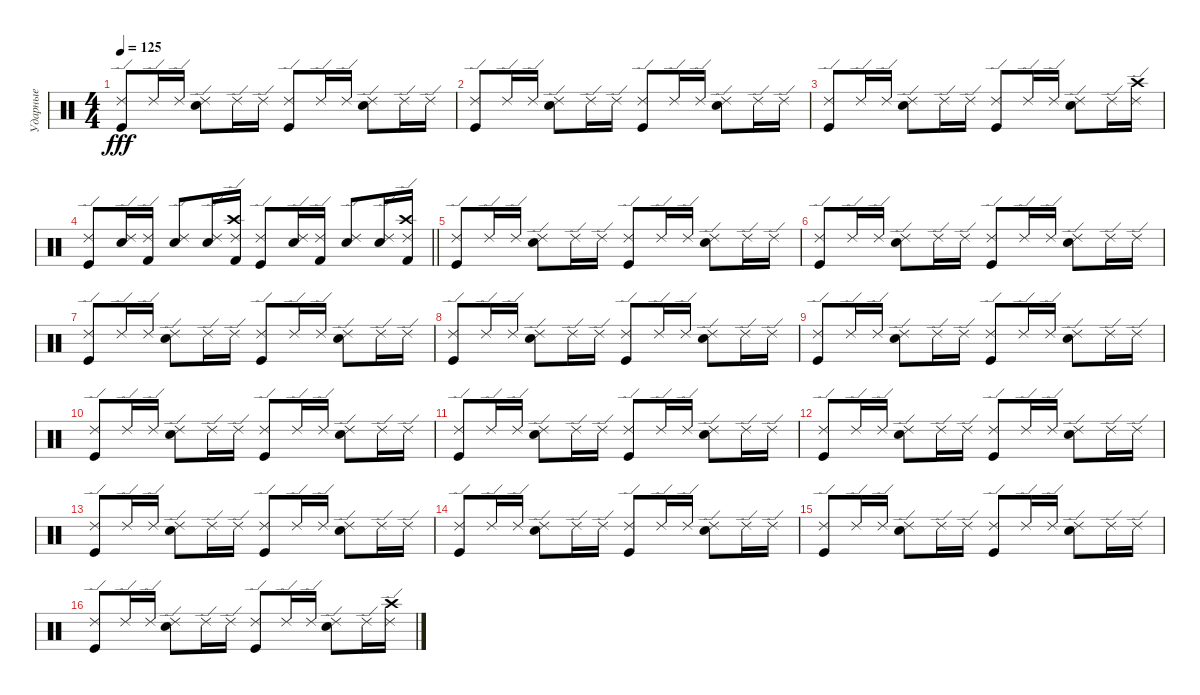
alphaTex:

\track ("Ударные" "Ударные") {instrument percussion}
\staff {score}
\articulation defaults
\ts (4 4)
\tempo 125
\clef neutral
\ks c
("Ride (edge) 2" "Kick (hit)").8{dy fff} "Ride (edge) 2".16 "Ride (edge) 2".16 ("Ride (edge) 2" "Snare (hit) 2").8 "Ride (edge) 2".16 "Ride (edge) 2".16 ("Ride (edge) 2" "Kick (hit)").8 "Ride (edge) 2".16 "Ride (edge) 2".16 ("Ride (edge) 2" "Snare (hit) 2").8 "Ride (edge) 2".16 "Ride (edge) 2".16 |
("Ride (edge) 2" "Kick (hit)").8 "Ride (edge) 2".16 "Ride (edge) 2".16 ("Ride (edge) 2" "Snare (hit) 2").8 "Ride (edge) 2".16 "Ride (edge) 2".16 ("Ride (edge) 2" "Kick (hit)").8 "Ride (edge) 2".16 "Ride (edge) 2".16 ("Ride (edge) 2" "Snare (hit) 2").8 "Ride (edge) 2".16 "Ride (edge) 2".16 |
("Ride (edge) 2" "Kick (hit)").8 "Ride (edge) 2".16 "Ride (edge) 2".16 ("Ride (edge) 2" "Snare (hit) 2").8 "Ride (edge) 2".16 "Ride (edge) 2".16 ("Ride (edge) 2" "Kick (hit)").8 "Ride (edge) 2".16 "Ride (edge) 2".16 ("Ride (edge) 2" "Snare (hit) 2").8 "Ride (edge) 2".16 ("Ride (edge) 2" "Crash high (hit)").16 |
\barLineRight lightlight
("Ride (edge) 2" "Kick (hit)").8 ("Ride (edge) 2" "Metronome (bell)").16 ("Ride (edge) 2" "Kick (hit) 2").16 ("Ride (edge) 2" "Snare (hit) 2").8 ("Ride (edge) 2" "Metronome (bell)").16 ("Ride (edge) 2" "Crash high (hit)" "Kick (hit) 2").16 ("Ride (edge) 2" "Kick (hit)").8 ("Ride (edge) 2" "Metronome (bell)").16 ("Ride (edge) 2" "Kick (hit) 2").16 ("Ride (edge) 2" "Snare (hit) 2").8 ("Ride (edge) 2" "Metronome (bell)").16 ("Ride (edge) 2" "Crash high (hit)" "Kick (hit) 2").16 |
("Ride (edge) 2" "Kick (hit)").8 "Ride (edge) 2".16 "Ride (edge) 2".16 ("Ride (edge) 2" "Snare (hit) 2").8 "Ride (edge) 2".16 "Ride (edge) 2".16 ("Ride (edge) 2" "Kick (hit)").8 "Ride (edge) 2".16 "Ride (edge) 2".16 ("Ride (edge) 2" "Snare (hit) 2").8 "Ride (edge) 2".16 "Ride (edge) 2".16 |
("Ride (edge) 2" "Kick (hit)").8 "Ride (edge) 2".16 "Ride (edge) 2".16 ("Ride (edge) 2" "Snare (hit) 2").8 "Ride (edge) 2".16 "Ride (edge) 2".16 ("Ride (edge) 2" "Kick (hit)").8 "Ride (edge) 2".16 "Ride (edge) 2".16 ("Ride (edge) 2" "Snare (hit) 2").8 "Ride (edge) 2".16 "Ride (edge) 2".16 |
("Ride (edge) 2" "Kick (hit)").8 "Ride (edge) 2".16 "Ride (edge) 2".16 ("Ride (edge) 2" "Snare (hit) 2").8 "Ride (edge) 2".16 "Ride (edge) 2".16 ("Ride (edge) 2" "Kick (hit)").8 "Ride (edge) 2".16 "Ride (edge) 2".16 ("Ride (edge) 2" "Snare (hit) 2").8 "Ride (edge) 2".16 "Ride (edge) 2".16 |
("Ride (edge) 2" "Kick (hit)").8 "Ride (edge) 2".16 "Ride (edge) 2".16 ("Ride (edge) 2" "Snare (hit) 2").8 "Ride (edge) 2".16 "Ride (edge) 2".16 ("Ride (edge) 2" "Kick (hit)").8 "Ride (edge) 2".16 "Ride (edge) 2".16 ("Ride (edge) 2" "Snare (hit) 2").8 "Ride (edge) 2".16 "Ride (edge) 2".16 |
("Ride (edge) 2" "Kick (hit)").8 "Ride (edge) 2".16 "Ride (edge) 2".16 ("Ride (edge) 2" "Snare (hit) 2").8 "Ride (edge) 2".16 "Ride (edge) 2".16 ("Ride (edge) 2" "Kick (hit)").8 "Ride (edge) 2".16 "Ride (edge) 2".16 ("Ride (edge) 2" "Snare (hit) 2").8 "Ride (edge) 2".16 "Ride (edge) 2".16 |
("Ride (edge) 2" "Kick (hit)").8 "Ride (edge) 2".16 "Ride (edge) 2".16 ("Ride (edge) 2" "Snare (hit) 2").8 "Ride (edge) 2".16 "Ride (edge) 2".16 ("Ride (edge) 2" "Kick (hit)").8 "Ride (edge) 2".16 "Ride (edge) 2".16 ("Ride (edge) 2" "Snare (hit) 2").8 "Ride (edge) 2".16 "Ride (edge) 2".16 |
("Ride (edge) 2" "Kick (hit)").8 "Ride (edge) 2".16 "Ride (edge) 2".16 ("Ride (edge) 2" "Snare (hit) 2").8 "Ride (edge) 2".16 "Ride (edge) 2".16 ("Ride (edge) 2" "Kick (hit)").8 "Ride (edge) 2".16 "Ride (edge) 2".16 ("Ride (edge) 2" "Snare (hit) 2").8 "Ride (edge) 2".16 "Ride (edge) 2".16 |
("Ride (edge) 2" "Kick (hit)").8 "Ride (edge) 2".16 "Ride (edge) 2".16 ("Ride (edge) 2" "Snare (hit) 2").8 "Ride (edge) 2".16 "Ride (edge) 2".16 ("Ride (edge) 2" "Kick (hit)").8 "Ride (edge) 2".16 "Ride (edge) 2".16 ("Ride (edge) 2" "Snare (hit) 2").8 "Ride (edge) 2".16 "Ride (edge) 2".16 |
("Ride (edge) 2" "Kick (hit)").8 "Ride (edge) 2".16 "Ride (edge) 2".16 ("Ride (edge) 2" "Snare (hit) 2").8 "Ride (edge) 2".16 "Ride (edge) 2".16 ("Ride (edge) 2" "Kick (hit)").8 "Ride (edge) 2".16 "Ride (edge) 2".16 ("Ride (edge) 2" "Snare (hit) 2").8 "Ride (edge) 2".16 "Ride (edge) 2".16 |
("Ride (edge) 2" "Kick (hit)").8 "Ride (edge) 2".16 "Ride (edge) 2".16 ("Ride (edge) 2" "Snare (hit) 2").8 "Ride (edge) 2".16 "Ride (edge) 2".16 ("Ride (edge) 2" "Kick (hit)").8 "Ride (edge) 2".16 "Ride (edge) 2".16 ("Ride (edge) 2" "Snare (hit) 2").8 "Ride (edge) 2".16 "Ride (edge) 2".16 |
("Ride (edge) 2" "Kick (hit)").8 "Ride (edge) 2".16 "Ride (edge) 2".16 ("Ride (edge) 2" "Snare (hit) 2").8 "Ride (edge) 2".16 "Ride (edge) 2".16 ("Ride (edge) 2" "Kick (hit)").8 "Ride (edge) 2".16 "Ride (edge) 2".16 ("Ride (edge) 2" "Snare (hit) 2").8 "Ride (edge) 2".16 "Ride (edge) 2".16 |
("Ride (edge) 2" "Kick (hit)").8 "Ride (edge) 2".16 "Ride (edge) 2".16 ("Ride (edge) 2" "Snare (hit) 2").8 "Ride (edge) 2".16 "Ride (edge) 2".16 ("Ride (edge) 2" "Kick (hit)").8 "Ride (edge) 2".16 "Ride (edge) 2".16 ("Ride (edge) 2" "Snare (hit) 2").8 "Ride (edge) 2".16 ("Ride (edge) 2" "Crash high (hit)").16
